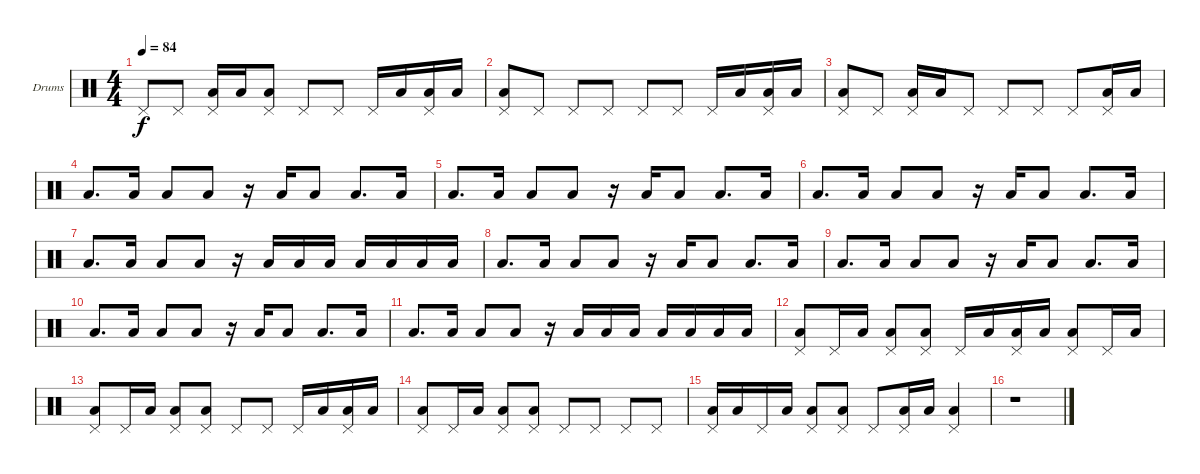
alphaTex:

\defaultSystemsLayout 4
\bracketExtendMode nobrackets
\firstSystemTrackNameOrientation horizontal
\otherSystemsTrackNameOrientation horizontal
\track ("Dave Krusen" "Drums") {instrument percussion}
\staff {score}
\articulation defaults
\ts (4 4)
\tempo 84
\clef neutral
\ks c "Pedal Hi-Hat (hit)".8{dy f} "Pedal Hi-Hat (hit)".8
("Pedal Hi-Hat (hit)" "Low Tom (hit)").16 "Low Tom (hit)".16 ("Pedal Hi-Hat (hit)" "Low Tom (hit)").8 "Pedal Hi-Hat (hit)".8 "Pedal Hi-Hat (hit)".8 "Pedal Hi-Hat (hit)".16 "Low Tom (hit)".16 ("Pedal Hi-Hat (hit)" "Low Tom (hit)").16 "Low Tom (hit)".16 |
("Pedal Hi-Hat (hit)" "Low Tom (hit)").8 "Pedal Hi-Hat (hit)".8 "Pedal Hi-Hat (hit)".8 "Pedal Hi-Hat (hit)".8 "Pedal Hi-Hat (hit)".8 "Pedal Hi-Hat (hit)".8 "Pedal Hi-Hat (hit)".16 "Low Tom (hit)".16 ("Pedal Hi-Hat (hit)" "Low Tom (hit)").16 "Low Tom (hit)".16 |
("Pedal Hi-Hat (hit)" "Low Tom (hit)").8 "Pedal Hi-Hat (hit)".8 ("Pedal Hi-Hat (hit)" "Low Tom (hit)").16 "Low Tom (hit)".16 "Pedal Hi-Hat (hit)".8 "Pedal Hi-Hat (hit)".8 "Pedal Hi-Hat (hit)".8 "Pedal Hi-Hat (hit)".8 ("Pedal Hi-Hat (hit)" "Low Tom (hit)").16 "Low Tom (hit)".16 |
"Low Tom (hit)".8{d} "Low Tom (hit)".16 "Low Tom (hit)".8 "Low Tom (hit)".8 r.16 "Low Tom (hit)".16 "Low Tom (hit)".8 "Low Tom (hit)".8{d} "Low Tom (hit)".16 |
"Low Tom (hit)".8{d} "Low Tom (hit)".16 "Low Tom (hit)".8 "Low Tom (hit)".8 r.16 "Low Tom (hit)".16 "Low Tom (hit)".8 "Low Tom (hit)".8{d} "Low Tom (hit)".16 |
"Low Tom (hit)".8{d} "Low Tom (hit)".16 "Low Tom (hit)".8 "Low Tom (hit)".8 r.16 "Low Tom (hit)".16 "Low Tom (hit)".8 "Low Tom (hit)".8{d} "Low Tom (hit)".16 |
"Low Tom (hit)".8{d} "Low Tom (hit)".16 "Low Tom (hit)".8 "Low Tom (hit)".8 r.16 "Low Tom (hit)".16 "Low Tom (hit)".16 "Low Tom (hit)".16 "Low Tom (hit)".16 "Low Tom (hit)".16 "Low Tom (hit)".16 "Low Tom (hit)".16 |
"Low Tom (hit)".8{d} "Low Tom (hit)".16 "Low Tom (hit)".8 "Low Tom (hit)".8 r.16 "Low Tom (hit)".16 "Low Tom (hit)".8 "Low Tom (hit)".8{d} "Low Tom (hit)".16 |
"Low Tom (hit)".8{d} "Low Tom (hit)".16 "Low Tom (hit)".8 "Low Tom (hit)".8 r.16 "Low Tom (hit)".16 "Low Tom (hit)".8 "Low Tom (hit)".8{d} "Low Tom (hit)".16 |
"Low Tom (hit)".8{d} "Low Tom (hit)".16 "Low Tom (hit)".8 "Low Tom (hit)".8 r.16 "Low Tom (hit)".16 "Low Tom (hit)".8 "Low Tom (hit)".8{d} "Low Tom (hit)".16 |
"Low Tom (hit)".8{d} "Low Tom (hit)".16 "Low Tom (hit)".8 "Low Tom (hit)".8 r.16 "Low Tom (hit)".16 "Low Tom (hit)".16 "Low Tom (hit)".16 "Low Tom (hit)".16 "Low Tom (hit)".16 "Low Tom (hit)".16 "Low Tom (hit)".16 |
("Pedal Hi-Hat (hit)" "Low Tom (hit)").8 "Pedal Hi-Hat (hit)".16 "Low Tom (hit)".16 ("Pedal Hi-Hat (hit)" "Low Tom (hit)").8 ("Pedal Hi-Hat (hit)" "Low Tom (hit)").8 "Pedal Hi-Hat (hit)".16 "Low Tom (hit)".16 ("Pedal Hi-Hat (hit)" "Low Tom (hit)").16 "Low Tom (hit)".16 ("Pedal Hi-Hat (hit)" "Low Tom (hit)").8 "Pedal Hi-Hat (hit)".16 "Low Tom (hit)".16 |
("Pedal Hi-Hat (hit)" "Low Tom (hit)").8 "Pedal Hi-Hat (hit)".16 "Low Tom (hit)".16 ("Pedal Hi-Hat (hit)" "Low Tom (hit)").8 ("Pedal Hi-Hat (hit)" "Low Tom (hit)").8 "Pedal Hi-Hat (hit)".8 "Pedal Hi-Hat (hit)".8 "Pedal Hi-Hat (hit)".16 "Low Tom (hit)".16 ("Pedal Hi-Hat (hit)" "Low Tom (hit)").16 "Low Tom (hit)".16 |
("Pedal Hi-Hat (hit)" "Low Tom (hit)").8 "Pedal Hi-Hat (hit)".16 "Low Tom (hit)".16 ("Pedal Hi-Hat (hit)" "Low Tom (hit)").8 ("Pedal Hi-Hat (hit)" "Low Tom (hit)").8 "Pedal Hi-Hat (hit)".8 "Pedal Hi-Hat (hit)".8 "Pedal Hi-Hat (hit)".8 "Pedal Hi-Hat (hit)".8 |
("Pedal Hi-Hat (hit)" "Low Tom (hit)").16 "Low Tom (hit)".16 "Pedal Hi-Hat (hit)".16 "Low Tom (hit)".16 ("Pedal Hi-Hat (hit)" "Low Tom (hit)").8 ("Pedal Hi-Hat (hit)" "Low Tom (hit)").8 "Pedal Hi-Hat (hit)".8 ("Pedal Hi-Hat (hit)" "Low Tom (hit)").16 "Low Tom (hit)".16 ("Pedal Hi-Hat (hit)" "Low Tom (hit)").4 |
r.1
